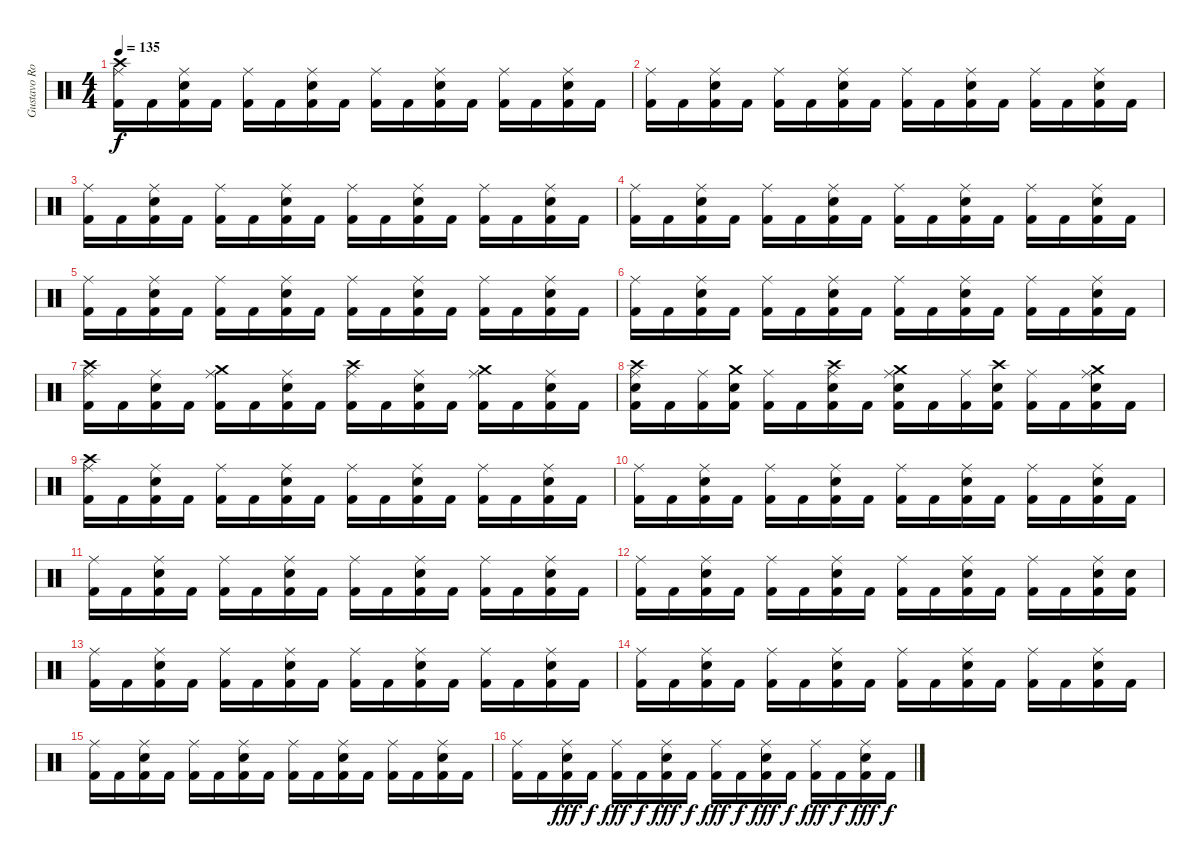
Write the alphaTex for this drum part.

\track ("Gustavo Rowek" "Gustavo Ro") {instrument percussion}
\staff {score}
\articulation defaults
\ts (4 4)
\tempo 135
\clef neutral
\ks c
("Kick (hit) 2" "Ride (middle)" "Crash high (hit)").16{dy f} "Kick (hit) 2".16 ("Kick (hit) 2" "Ride (middle)" "Electric Snare (hit)").16 "Kick (hit) 2".16 ("Kick (hit) 2" "Ride (middle)").16 "Kick (hit) 2".16 ("Kick (hit) 2" "Ride (middle)" "Electric Snare (hit)").16 "Kick (hit) 2".16 ("Kick (hit) 2" "Ride (middle)").16 "Kick (hit) 2".16 ("Kick (hit) 2" "Ride (middle)" "Electric Snare (hit)").16 "Kick (hit) 2".16 ("Kick (hit) 2" "Ride (middle)").16 "Kick (hit) 2".16 ("Kick (hit) 2" "Ride (middle)" "Electric Snare (hit)").16 "Kick (hit) 2".16 |
("Kick (hit) 2" "Ride (middle)").16 "Kick (hit) 2".16 ("Kick (hit) 2" "Ride (middle)" "Electric Snare (hit)").16 "Kick (hit) 2".16 ("Kick (hit) 2" "Ride (middle)").16 "Kick (hit) 2".16 ("Kick (hit) 2" "Ride (middle)" "Electric Snare (hit)").16 "Kick (hit) 2".16 ("Kick (hit) 2" "Ride (middle)").16 "Kick (hit) 2".16 ("Kick (hit) 2" "Ride (middle)" "Electric Snare (hit)").16 "Kick (hit) 2".16 ("Kick (hit) 2" "Ride (middle)").16 "Kick (hit) 2".16 ("Kick (hit) 2" "Ride (middle)" "Electric Snare (hit)").16 "Kick (hit) 2".16 |
("Kick (hit) 2" "Ride (middle)").16 "Kick (hit) 2".16 ("Kick (hit) 2" "Ride (middle)" "Electric Snare (hit)").16 "Kick (hit) 2".16 ("Kick (hit) 2" "Ride (middle)").16 "Kick (hit) 2".16 ("Kick (hit) 2" "Ride (middle)" "Electric Snare (hit)").16 "Kick (hit) 2".16 ("Kick (hit) 2" "Ride (middle)").16 "Kick (hit) 2".16 ("Kick (hit) 2" "Ride (middle)" "Electric Snare (hit)").16 "Kick (hit) 2".16 ("Kick (hit) 2" "Ride (middle)").16 "Kick (hit) 2".16 ("Kick (hit) 2" "Ride (middle)" "Electric Snare (hit)").16 "Kick (hit) 2".16 |
("Kick (hit) 2" "Ride (middle)").16 "Kick (hit) 2".16 ("Kick (hit) 2" "Ride (middle)" "Electric Snare (hit)").16 "Kick (hit) 2".16 ("Kick (hit) 2" "Ride (middle)").16 "Kick (hit) 2".16 ("Kick (hit) 2" "Ride (middle)" "Electric Snare (hit)").16 "Kick (hit) 2".16 ("Kick (hit) 2" "Ride (middle)").16 "Kick (hit) 2".16 ("Kick (hit) 2" "Ride (middle)" "Electric Snare (hit)").16 "Kick (hit) 2".16 ("Kick (hit) 2" "Ride (middle)").16 "Kick (hit) 2".16 ("Kick (hit) 2" "Ride (middle)" "Electric Snare (hit)").16 "Kick (hit) 2".16 |
("Kick (hit) 2" "Ride (middle)").16 "Kick (hit) 2".16 ("Kick (hit) 2" "Ride (middle)" "Electric Snare (hit)").16 "Kick (hit) 2".16 ("Kick (hit) 2" "Ride (middle)").16 "Kick (hit) 2".16 ("Kick (hit) 2" "Ride (middle)" "Electric Snare (hit)").16 "Kick (hit) 2".16 ("Kick (hit) 2" "Ride (middle)").16 "Kick (hit) 2".16 ("Kick (hit) 2" "Ride (middle)" "Electric Snare (hit)").16 "Kick (hit) 2".16 ("Kick (hit) 2" "Ride (middle)").16 "Kick (hit) 2".16 ("Kick (hit) 2" "Ride (middle)" "Electric Snare (hit)").16 "Kick (hit) 2".16 |
("Kick (hit) 2" "Ride (middle)").16 "Kick (hit) 2".16 ("Kick (hit) 2" "Ride (middle)" "Electric Snare (hit)").16 "Kick (hit) 2".16 ("Kick (hit) 2" "Ride (middle)").16 "Kick (hit) 2".16 ("Kick (hit) 2" "Ride (middle)" "Electric Snare (hit)").16 "Kick (hit) 2".16 ("Kick (hit) 2" "Ride (middle)").16 "Kick (hit) 2".16 ("Kick (hit) 2" "Ride (middle)" "Electric Snare (hit)").16 "Kick (hit) 2".16 ("Kick (hit) 2" "Ride (middle)").16 "Kick (hit) 2".16 ("Kick (hit) 2" "Ride (middle)" "Electric Snare (hit)").16 "Kick (hit) 2".16 |
("Kick (hit) 2" "Ride (middle)" "Crash high (hit)").16 "Kick (hit) 2".16 ("Kick (hit) 2" "Ride (middle)" "Electric Snare (hit)").16 "Kick (hit) 2".16 ("Kick (hit) 2" "Ride (middle)" "Crash medium (hit)").16 "Kick (hit) 2".16 ("Kick (hit) 2" "Ride (middle)" "Electric Snare (hit)").16 "Kick (hit) 2".16 ("Kick (hit) 2" "Ride (middle)" "Crash high (hit)").16 "Kick (hit) 2".16 ("Kick (hit) 2" "Ride (middle)" "Electric Snare (hit)").16 "Kick (hit) 2".16 ("Kick (hit) 2" "Ride (middle)" "Crash medium (hit)").16 "Kick (hit) 2".16 ("Kick (hit) 2" "Ride (middle)" "Electric Snare (hit)").16 "Kick (hit) 2".16 |
("Kick (hit) 2" "Electric Snare (hit)" "Ride (middle)" "Crash high (hit)").16 "Kick (hit) 2".16 ("Kick (hit) 2" "Ride (middle)").16 ("Kick (hit) 2" "Electric Snare (hit)" "Crash medium (hit)").16 ("Kick (hit) 2" "Ride (middle)").16 "Kick (hit) 2".16 ("Kick (hit) 2" "Electric Snare (hit)" "Ride (middle)" "Crash high (hit)").16 "Kick (hit) 2".16 ("Kick (hit) 2" "Electric Snare (hit)" "Ride (middle)" "Crash medium (hit)").16 "Kick (hit) 2".16 ("Kick (hit) 2" "Ride (middle)").16 ("Kick (hit) 2" "Electric Snare (hit)" "Crash high (hit)").16 ("Kick (hit) 2" "Ride (middle)").16 "Kick (hit) 2".16 ("Kick (hit) 2" "Electric Snare (hit)" "Ride (middle)" "Crash medium (hit)").16 "Kick (hit) 2".16 |
("Kick (hit) 2" "Ride (middle)" "Crash high (hit)").16 "Kick (hit) 2".16 ("Kick (hit) 2" "Ride (middle)" "Electric Snare (hit)").16 "Kick (hit) 2".16 ("Kick (hit) 2" "Ride (middle)").16 "Kick (hit) 2".16 ("Kick (hit) 2" "Ride (middle)" "Electric Snare (hit)").16 "Kick (hit) 2".16 ("Kick (hit) 2" "Ride (middle)").16 "Kick (hit) 2".16 ("Kick (hit) 2" "Ride (middle)" "Electric Snare (hit)").16 "Kick (hit) 2".16 ("Kick (hit) 2" "Ride (middle)").16 "Kick (hit) 2".16 ("Kick (hit) 2" "Ride (middle)" "Electric Snare (hit)").16 "Kick (hit) 2".16 |
("Kick (hit) 2" "Ride (middle)").16 "Kick (hit) 2".16 ("Kick (hit) 2" "Ride (middle)" "Electric Snare (hit)").16 "Kick (hit) 2".16 ("Kick (hit) 2" "Ride (middle)").16 "Kick (hit) 2".16 ("Kick (hit) 2" "Ride (middle)" "Electric Snare (hit)").16 "Kick (hit) 2".16 ("Kick (hit) 2" "Ride (middle)").16 "Kick (hit) 2".16 ("Kick (hit) 2" "Ride (middle)" "Electric Snare (hit)").16 "Kick (hit) 2".16 ("Kick (hit) 2" "Ride (middle)").16 "Kick (hit) 2".16 ("Kick (hit) 2" "Ride (middle)" "Electric Snare (hit)").16 "Kick (hit) 2".16 |
("Kick (hit) 2" "Ride (middle)").16 "Kick (hit) 2".16 ("Kick (hit) 2" "Ride (middle)" "Electric Snare (hit)").16 "Kick (hit) 2".16 ("Kick (hit) 2" "Ride (middle)").16 "Kick (hit) 2".16 ("Kick (hit) 2" "Ride (middle)" "Electric Snare (hit)").16 "Kick (hit) 2".16 ("Kick (hit) 2" "Ride (middle)").16 "Kick (hit) 2".16 ("Kick (hit) 2" "Ride (middle)" "Electric Snare (hit)").16 "Kick (hit) 2".16 ("Kick (hit) 2" "Ride (middle)").16 "Kick (hit) 2".16 ("Kick (hit) 2" "Ride (middle)" "Electric Snare (hit)").16 "Kick (hit) 2".16 |
("Kick (hit) 2" "Ride (middle)").16 "Kick (hit) 2".16 ("Kick (hit) 2" "Ride (middle)" "Electric Snare (hit)").16 "Kick (hit) 2".16 ("Kick (hit) 2" "Ride (middle)").16 "Kick (hit) 2".16 ("Kick (hit) 2" "Ride (middle)" "Electric Snare (hit)").16 "Kick (hit) 2".16 ("Kick (hit) 2" "Ride (middle)").16 "Kick (hit) 2".16 ("Kick (hit) 2" "Ride (middle)" "Electric Snare (hit)").16 "Kick (hit) 2".16 ("Kick (hit) 2" "Ride (middle)").16 "Kick (hit) 2".16 ("Kick (hit) 2" "Ride (middle)" "Electric Snare (hit)").16 ("Kick (hit) 2" "Electric Snare (hit)").16 |
("Kick (hit) 2" "Ride (middle)").16 "Kick (hit) 2".16 ("Kick (hit) 2" "Ride (middle)" "Electric Snare (hit)").16 "Kick (hit) 2".16 ("Kick (hit) 2" "Ride (middle)").16 "Kick (hit) 2".16 ("Kick (hit) 2" "Ride (middle)" "Electric Snare (hit)").16 "Kick (hit) 2".16 ("Kick (hit) 2" "Ride (middle)").16 "Kick (hit) 2".16 ("Kick (hit) 2" "Ride (middle)" "Electric Snare (hit)").16 "Kick (hit) 2".16 ("Kick (hit) 2" "Ride (middle)").16 "Kick (hit) 2".16 ("Kick (hit) 2" "Ride (middle)" "Electric Snare (hit)").16 "Kick (hit) 2".16 |
("Kick (hit) 2" "Ride (middle)").16 "Kick (hit) 2".16 ("Kick (hit) 2" "Ride (middle)" "Electric Snare (hit)").16 "Kick (hit) 2".16 ("Kick (hit) 2" "Ride (middle)").16 "Kick (hit) 2".16 ("Kick (hit) 2" "Ride (middle)" "Electric Snare (hit)").16 "Kick (hit) 2".16 ("Kick (hit) 2" "Ride (middle)").16 "Kick (hit) 2".16 ("Kick (hit) 2" "Ride (middle)" "Electric Snare (hit)").16 "Kick (hit) 2".16 ("Kick (hit) 2" "Ride (middle)").16 "Kick (hit) 2".16 ("Kick (hit) 2" "Ride (middle)" "Electric Snare (hit)").16 "Kick (hit) 2".16 |
("Kick (hit) 2" "Ride (middle)").16 "Kick (hit) 2".16 ("Kick (hit) 2" "Ride (middle)" "Electric Snare (hit)").16 "Kick (hit) 2".16 ("Kick (hit) 2" "Ride (middle)").16 "Kick (hit) 2".16 ("Kick (hit) 2" "Ride (middle)" "Electric Snare (hit)").16 "Kick (hit) 2".16 ("Kick (hit) 2" "Ride (middle)").16 "Kick (hit) 2".16 ("Kick (hit) 2" "Ride (middle)" "Electric Snare (hit)").16 "Kick (hit) 2".16 ("Kick (hit) 2" "Ride (middle)").16 "Kick (hit) 2".16 ("Kick (hit) 2" "Ride (middle)" "Electric Snare (hit)").16 "Kick (hit) 2".16 |
("Kick (hit) 2" "Ride (middle)").16 "Kick (hit) 2".16 ("Kick (hit) 2" "Ride (middle)" "Electric Snare (hit)").16{dy fff} "Kick (hit) 2".16{dy f} ("Kick (hit) 2" "Ride (middle)").16{dy fff} "Kick (hit) 2".16{dy f} ("Kick (hit) 2" "Ride (middle)" "Electric Snare (hit)").16{dy fff} "Kick (hit) 2".16{dy f} ("Kick (hit) 2" "Ride (middle)").16{dy fff} "Kick (hit) 2".16{dy f} ("Kick (hit) 2" "Ride (middle)" "Electric Snare (hit)").16{dy fff} "Kick (hit) 2".16{dy f} ("Kick (hit) 2" "Ride (middle)").16{dy fff} "Kick (hit) 2".16{dy f} ("Kick (hit) 2" "Ride (middle)" "Electric Snare (hit)").16{dy fff} "Kick (hit) 2".16{dy f}
